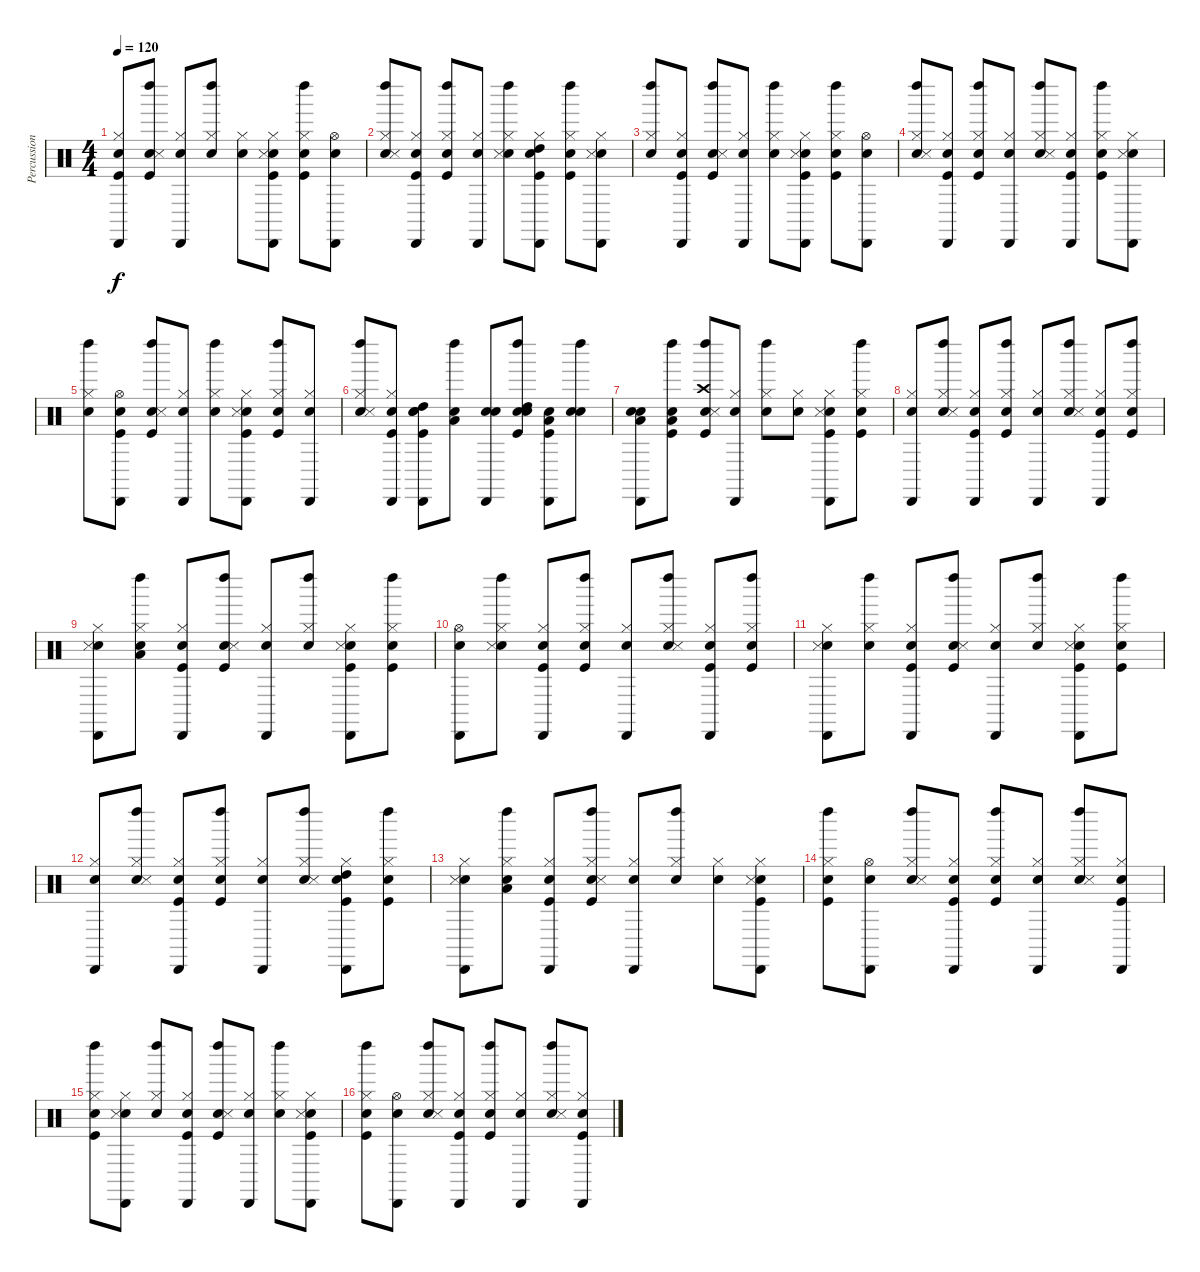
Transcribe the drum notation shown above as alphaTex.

\track ("Percussions" "Percussion") {instrument percussion}
\staff {score}
\articulation defaults
\ts (4 4)
\tempo 120
\clef neutral
\ks c
("Snare (hit)" "Kick (hit)" "Hi-Hat (closed)" "Cabasa (hit)").8{dy f} ("Snare (hit)" "Kick (hit)" "Snare (side stick) 3" "Left Maraca (hit)").8 ("Snare (hit)" "Hi-Hat (closed)" "Cabasa (hit)").8 ("Snare (hit)" "Hi-Hat (closed)" "Left Maraca (hit)").8 ("Snare (hit)" "Hi-Hat (closed)").8 ("Snare (hit)" "Kick (hit)" "Hi-Hat (closed)" "Snare (side stick) 3" "Cabasa (hit)").8 ("Snare (hit)" "Kick (hit)" "Hi-Hat (closed)" "Left Maraca (hit)").8 ("Snare (hit)" "Hi-Hat (open)" "Cabasa (hit)").8 |
("Snare (hit)" "Hi-Hat (closed)" "Snare (side stick) 3" "Left Maraca (hit)").8 ("Snare (hit)" "Kick (hit)" "Hi-Hat (closed)" "Cabasa (hit)").8 ("Snare (hit)" "Kick (hit)" "Hi-Hat (closed)" "Left Maraca (hit)").8 ("Snare (hit)" "Hi-Hat (closed)" "Cabasa (hit)").8 ("Snare (hit)" "Hi-Hat (closed)" "Snare (side stick) 3" "Left Maraca (hit)").8 ("Snare (hit)" "Kick (hit)" "Hi-Hat (closed)" "High Tom (hit)" "Cabasa (hit)").8 ("Snare (hit)" "Kick (hit)" "Hi-Hat (closed)" "Left Maraca (hit)").8 ("Snare (hit)" "Hi-Hat (closed)" "Snare (side stick) 3" "Cabasa (hit)").8 |
("Snare (hit)" "Hi-Hat (closed)" "Left Maraca (hit)").8 ("Snare (hit)" "Kick (hit)" "Hi-Hat (closed)" "Cabasa (hit)").8 ("Snare (hit)" "Kick (hit)" "Snare (side stick) 3" "Left Maraca (hit)").8 ("Snare (hit)" "Hi-Hat (closed)" "Cabasa (hit)").8 ("Snare (hit)" "Hi-Hat (closed)" "Left Maraca (hit)").8 ("Snare (hit)" "Kick (hit)" "Hi-Hat (closed)" "Snare (side stick) 3" "Cabasa (hit)").8 ("Snare (hit)" "Kick (hit)" "Hi-Hat (closed)" "Left Maraca (hit)").8 ("Snare (hit)" "Hi-Hat (open)" "Cabasa (hit)").8 |
("Snare (hit)" "Hi-Hat (closed)" "Snare (side stick) 3" "Left Maraca (hit)").8 ("Snare (hit)" "Kick (hit)" "Hi-Hat (closed)" "Cabasa (hit)").8 ("Snare (hit)" "Kick (hit)" "Hi-Hat (closed)" "Left Maraca (hit)").8 ("Snare (hit)" "Hi-Hat (closed)" "Cabasa (hit)").8 ("Snare (hit)" "Hi-Hat (closed)" "Snare (side stick) 3" "Left Maraca (hit)").8 ("Snare (hit)" "Kick (hit)" "Hi-Hat (closed)" "Cabasa (hit)").8 ("Snare (hit)" "Kick (hit)" "Hi-Hat (closed)" "Left Maraca (hit)").8 ("Snare (hit)" "Hi-Hat (closed)" "Snare (side stick) 3" "Cabasa (hit)").8 |
("Snare (hit)" "Hi-Hat (closed)" "Left Maraca (hit)").8 ("Snare (hit)" "Kick (hit)" "Hi-Hat (open)" "Cabasa (hit)").8 ("Snare (hit)" "Kick (hit)" "Snare (side stick) 3" "Left Maraca (hit)").8 ("Snare (hit)" "Hi-Hat (closed)" "Cabasa (hit)").8 ("Snare (hit)" "Hi-Hat (closed)" "Left Maraca (hit)").8 ("Snare (hit)" "Kick (hit)" "Hi-Hat (closed)" "Snare (side stick) 3" "Cabasa (hit)").8 ("Snare (hit)" "Kick (hit)" "Hi-Hat (closed)" "Left Maraca (hit)").8 ("Snare (hit)" "Hi-Hat (closed)" "Cabasa (hit)").8 |
("Snare (hit)" "Hi-Hat (closed)" "Snare (side stick) 3" "Left Maraca (hit)").8 ("Snare (hit)" "Kick (hit)" "Hi-Hat (closed)" "Cabasa (hit)").8 ("Snare (hit)" "Kick (hit)" "Snare (hit) 2" "High Tom (hit)" "Cabasa (hit)").8 ("Snare (hit)" "Low Tom (hit)" "Left Maraca (hit)").8 ("Snare (hit)" "Snare (hit) 2" "Cabasa (hit)").8 ("Snare (hit)" "Kick (hit)" "Snare (hit) 2" "High Tom (hit)" "Left Maraca (hit)").8 ("Snare (hit)" "Kick (hit)" "Low Tom (hit)" "Cabasa (hit)").8 ("Snare (hit)" "Snare (hit) 2" "Left Maraca (hit)").8 |
("Snare (hit)" "Snare (hit) 2" "Low Tom (hit)" "Cabasa (hit)").8 ("Snare (hit)" "Kick (hit)" "Low Floor Tom (hit)" "Left Maraca (hit)").8 ("Snare (hit)" "Kick (hit)" "Snare (side stick) 3" "Crash high (hit)" "Left Maraca (hit)").8 ("Snare (hit)" "Hi-Hat (closed)" "Cabasa (hit)").8 ("Snare (hit)" "Hi-Hat (closed)" "Left Maraca (hit)").8 ("Snare (hit)" "Hi-Hat (closed)").8 ("Snare (hit)" "Kick (hit)" "Hi-Hat (closed)" "Snare (side stick) 3" "Cabasa (hit)").8 ("Snare (hit)" "Kick (hit)" "Hi-Hat (closed)" "Left Maraca (hit)").8 |
("Snare (hit)" "Hi-Hat (closed)" "Cabasa (hit)").8 ("Snare (hit)" "Hi-Hat (closed)" "Snare (side stick) 3" "Left Maraca (hit)").8 ("Snare (hit)" "Kick (hit)" "Hi-Hat (closed)" "Cabasa (hit)").8 ("Snare (hit)" "Kick (hit)" "Hi-Hat (closed)" "Left Maraca (hit)").8 ("Snare (hit)" "Hi-Hat (closed)" "Cabasa (hit)").8 ("Snare (hit)" "Hi-Hat (closed)" "Snare (side stick) 3" "Left Maraca (hit)").8 ("Snare (hit)" "Kick (hit)" "Hi-Hat (closed)" "Cabasa (hit)").8 ("Snare (hit)" "Kick (hit)" "Hi-Hat (closed)" "Left Maraca (hit)").8 |
("Snare (hit)" "Hi-Hat (closed)" "Snare (side stick) 3" "Cabasa (hit)").8 ("Snare (hit)" "Hi-Hat (closed)" "Low Tom (hit)" "Left Maraca (hit)").8 ("Snare (hit)" "Kick (hit)" "Hi-Hat (closed)" "Cabasa (hit)").8 ("Snare (hit)" "Kick (hit)" "Snare (side stick) 3" "Left Maraca (hit)").8 ("Snare (hit)" "Hi-Hat (closed)" "Cabasa (hit)").8 ("Snare (hit)" "Hi-Hat (closed)" "Left Maraca (hit)").8 ("Snare (hit)" "Kick (hit)" "Hi-Hat (closed)" "Snare (side stick) 3" "Cabasa (hit)").8 ("Snare (hit)" "Kick (hit)" "Hi-Hat (closed)" "Left Maraca (hit)").8 |
("Snare (hit)" "Hi-Hat (open)" "Cabasa (hit)").8 ("Snare (hit)" "Hi-Hat (closed)" "Snare (side stick) 3" "Left Maraca (hit)").8 ("Snare (hit)" "Kick (hit)" "Hi-Hat (closed)" "Cabasa (hit)").8 ("Snare (hit)" "Kick (hit)" "Hi-Hat (closed)" "Left Maraca (hit)").8 ("Snare (hit)" "Hi-Hat (closed)" "Cabasa (hit)").8 ("Snare (hit)" "Hi-Hat (closed)" "Snare (side stick) 3" "Left Maraca (hit)").8 ("Snare (hit)" "Kick (hit)" "Hi-Hat (closed)" "Cabasa (hit)").8 ("Snare (hit)" "Kick (hit)" "Hi-Hat (closed)" "Left Maraca (hit)").8 |
("Snare (hit)" "Hi-Hat (closed)" "Snare (side stick) 3" "Cabasa (hit)").8 ("Snare (hit)" "Hi-Hat (closed)" "Left Maraca (hit)").8 ("Snare (hit)" "Kick (hit)" "Hi-Hat (closed)" "Cabasa (hit)").8 ("Snare (hit)" "Kick (hit)" "Snare (side stick) 3" "Left Maraca (hit)").8 ("Snare (hit)" "Hi-Hat (closed)" "Cabasa (hit)").8 ("Snare (hit)" "Hi-Hat (closed)" "Left Maraca (hit)").8 ("Snare (hit)" "Kick (hit)" "Hi-Hat (closed)" "Snare (side stick) 3" "Cabasa (hit)").8 ("Snare (hit)" "Kick (hit)" "Hi-Hat (closed)" "Left Maraca (hit)").8 |
("Snare (hit)" "Hi-Hat (closed)" "Cabasa (hit)").8 ("Snare (hit)" "Hi-Hat (closed)" "Snare (side stick) 3" "Left Maraca (hit)").8 ("Snare (hit)" "Kick (hit)" "Hi-Hat (closed)" "Cabasa (hit)").8 ("Snare (hit)" "Kick (hit)" "Hi-Hat (closed)" "Left Maraca (hit)").8 ("Snare (hit)" "Hi-Hat (closed)" "Cabasa (hit)").8 ("Snare (hit)" "Hi-Hat (closed)" "Snare (side stick) 3" "Left Maraca (hit)").8 ("Snare (hit)" "Kick (hit)" "Hi-Hat (closed)" "High Tom (hit)" "Cabasa (hit)").8 ("Snare (hit)" "Kick (hit)" "Hi-Hat (closed)" "Left Maraca (hit)").8 |
("Snare (hit)" "Hi-Hat (closed)" "Snare (side stick) 3" "Cabasa (hit)").8 ("Snare (hit)" "Hi-Hat (closed)" "Low Tom (hit)" "Left Maraca (hit)").8 ("Snare (hit)" "Kick (hit)" "Hi-Hat (closed)" "Cabasa (hit)").8 ("Snare (hit)" "Kick (hit)" "Hi-Hat (closed)" "Snare (side stick) 3" "Left Maraca (hit)").8 ("Snare (hit)" "Hi-Hat (closed)" "Cabasa (hit)").8 ("Snare (hit)" "Hi-Hat (closed)" "Left Maraca (hit)").8 ("Snare (hit)" "Hi-Hat (closed)").8 ("Snare (hit)" "Kick (hit)" "Hi-Hat (closed)" "Snare (side stick) 3" "Cabasa (hit)").8 |
("Snare (hit)" "Kick (hit)" "Hi-Hat (closed)" "Left Maraca (hit)").8 ("Snare (hit)" "Hi-Hat (open)" "Cabasa (hit)").8 ("Snare (hit)" "Hi-Hat (closed)" "Snare (side stick) 3" "Left Maraca (hit)").8 ("Snare (hit)" "Kick (hit)" "Hi-Hat (closed)" "Cabasa (hit)").8 ("Snare (hit)" "Kick (hit)" "Hi-Hat (closed)" "Left Maraca (hit)").8 ("Snare (hit)" "Hi-Hat (closed)" "Cabasa (hit)").8 ("Snare (hit)" "Hi-Hat (closed)" "Snare (side stick) 3" "Left Maraca (hit)").8 ("Snare (hit)" "Kick (hit)" "Hi-Hat (closed)" "Cabasa (hit)").8 |
("Snare (hit)" "Kick (hit)" "Hi-Hat (closed)" "Left Maraca (hit)").8 ("Snare (hit)" "Hi-Hat (closed)" "Snare (side stick) 3" "Cabasa (hit)").8 ("Snare (hit)" "Hi-Hat (closed)" "Left Maraca (hit)").8 ("Snare (hit)" "Kick (hit)" "Hi-Hat (closed)" "Cabasa (hit)").8 ("Snare (hit)" "Kick (hit)" "Snare (side stick) 3" "Left Maraca (hit)").8 ("Snare (hit)" "Hi-Hat (closed)" "Cabasa (hit)").8 ("Snare (hit)" "Hi-Hat (closed)" "Left Maraca (hit)").8 ("Snare (hit)" "Kick (hit)" "Hi-Hat (closed)" "Snare (side stick) 3" "Cabasa (hit)").8 |
("Snare (hit)" "Kick (hit)" "Hi-Hat (closed)" "Left Maraca (hit)").8 ("Snare (hit)" "Hi-Hat (open)" "Cabasa (hit)").8 ("Snare (hit)" "Hi-Hat (closed)" "Snare (side stick) 3" "Left Maraca (hit)").8 ("Snare (hit)" "Kick (hit)" "Hi-Hat (closed)" "Cabasa (hit)").8 ("Snare (hit)" "Kick (hit)" "Hi-Hat (closed)" "Left Maraca (hit)").8 ("Snare (hit)" "Hi-Hat (closed)" "Cabasa (hit)").8 ("Snare (hit)" "Hi-Hat (closed)" "Snare (side stick) 3" "Left Maraca (hit)").8 ("Snare (hit)" "Kick (hit)" "Hi-Hat (closed)" "Cabasa (hit)").8
